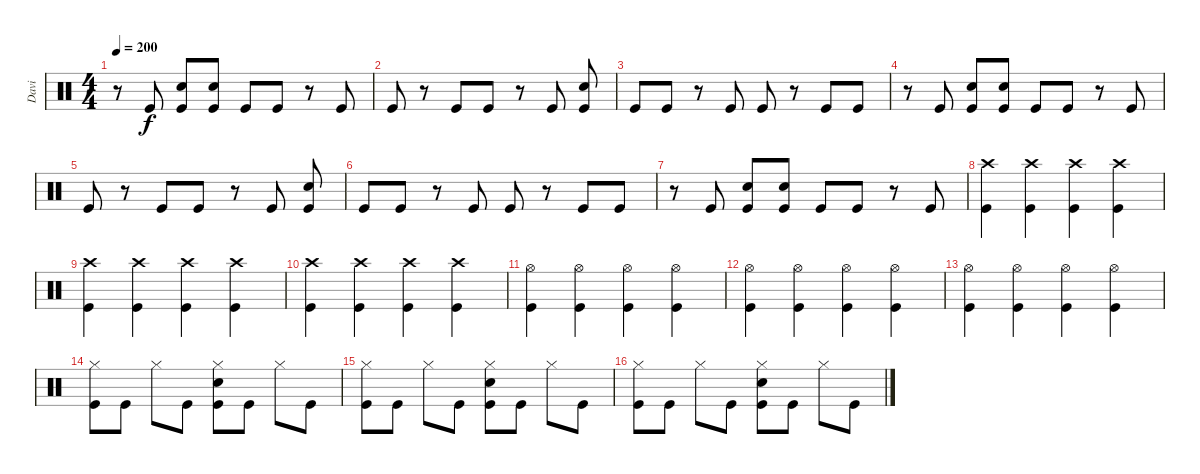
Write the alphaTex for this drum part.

\track ("Davi" "Davi") {instrument percussion}
\staff {score}
\articulation defaults
\ts (4 4)
\tempo 200
\clef neutral
\ks c
r.8{dy f} "Kick (hit)".8 ("Electric Snare (hit)" "Kick (hit)").8 ("Electric Snare (hit)" "Kick (hit)").8 "Kick (hit)".8 "Kick (hit)".8 r.8 "Kick (hit)".8 |
"Kick (hit)".8 r.8 "Kick (hit)".8 "Kick (hit)".8 r.8 "Kick (hit)".8 ("Electric Snare (hit)" "Kick (hit)").8 |
"Kick (hit)".8 "Kick (hit)".8 r.8 "Kick (hit)".8 "Kick (hit)".8 r.8 "Kick (hit)".8 "Kick (hit)".8 |
r.8 "Kick (hit)".8 ("Electric Snare (hit)" "Kick (hit)").8 ("Electric Snare (hit)" "Kick (hit)").8 "Kick (hit)".8 "Kick (hit)".8 r.8 "Kick (hit)".8 |
"Kick (hit)".8 r.8 "Kick (hit)".8 "Kick (hit)".8 r.8 "Kick (hit)".8 ("Electric Snare (hit)" "Kick (hit)").8 |
"Kick (hit)".8 "Kick (hit)".8 r.8 "Kick (hit)".8 "Kick (hit)".8 r.8 "Kick (hit)".8 "Kick (hit)".8 |
r.8 "Kick (hit)".8 ("Electric Snare (hit)" "Kick (hit)").8 ("Electric Snare (hit)" "Kick (hit)").8 "Kick (hit)".8 "Kick (hit)".8 r.8 "Kick (hit)".8 |
("Crash high (hit)" "Kick (hit)").4 ("Crash high (hit)" "Kick (hit)").4 ("Crash high (hit)" "Kick (hit)").4 ("Crash high (hit)" "Kick (hit)").4 |
("Crash high (hit)" "Kick (hit)").4 ("Crash high (hit)" "Kick (hit)").4 ("Crash high (hit)" "Kick (hit)").4 ("Crash high (hit)" "Kick (hit)").4 |
("Crash high (hit)" "Kick (hit)").4 ("Crash high (hit)" "Kick (hit)").4 ("Crash high (hit)" "Kick (hit)").4 ("Crash high (hit)" "Kick (hit)").4 |
("Hi-Hat (open)" "Kick (hit)").4 ("Hi-Hat (open)" "Kick (hit)").4 ("Hi-Hat (open)" "Kick (hit)").4 ("Hi-Hat (open)" "Kick (hit)").4 |
("Hi-Hat (open)" "Kick (hit)").4 ("Hi-Hat (open)" "Kick (hit)").4 ("Hi-Hat (open)" "Kick (hit)").4 ("Hi-Hat (open)" "Kick (hit)").4 |
("Hi-Hat (open)" "Kick (hit)").4 ("Hi-Hat (open)" "Kick (hit)").4 ("Hi-Hat (open)" "Kick (hit)").4 ("Hi-Hat (open)" "Kick (hit)").4 |
("Hi-Hat (closed)" "Kick (hit)").8 "Kick (hit)".8 "Hi-Hat (closed)".8 "Kick (hit)".8 ("Hi-Hat (closed)" "Electric Snare (hit)" "Kick (hit)").8 "Kick (hit)".8 "Hi-Hat (closed)".8 "Kick (hit)".8 |
("Hi-Hat (closed)" "Kick (hit)").8 "Kick (hit)".8 "Hi-Hat (closed)".8 "Kick (hit)".8 ("Hi-Hat (closed)" "Electric Snare (hit)" "Kick (hit)").8 "Kick (hit)".8 "Hi-Hat (closed)".8 "Kick (hit)".8 |
("Hi-Hat (closed)" "Kick (hit)").8 "Kick (hit)".8 "Hi-Hat (closed)".8 "Kick (hit)".8 ("Hi-Hat (closed)" "Electric Snare (hit)" "Kick (hit)").8 "Kick (hit)".8 "Hi-Hat (closed)".8 "Kick (hit)".8
